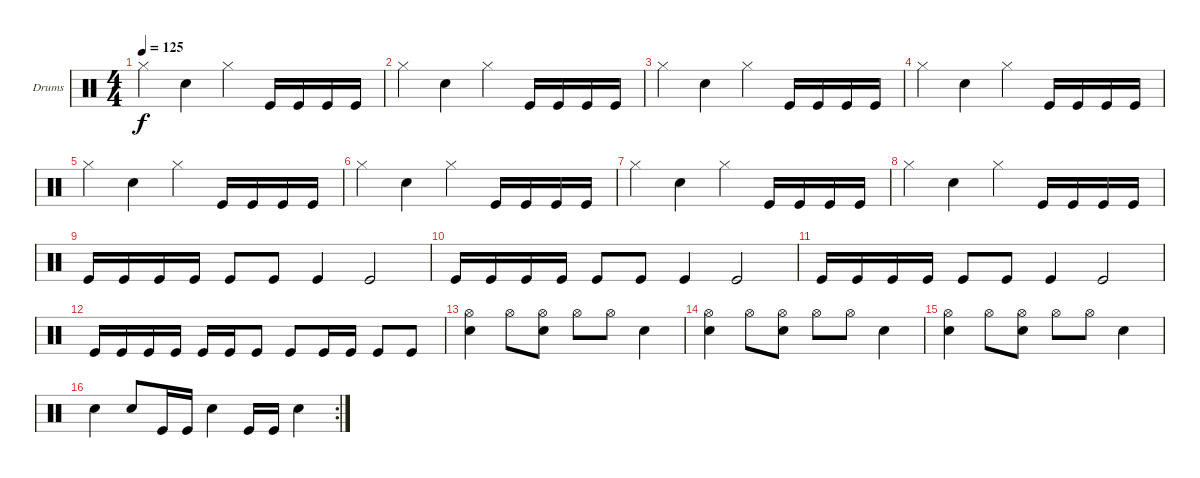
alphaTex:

\defaultSystemsLayout 4
\bracketExtendMode groupsimilarinstruments
\firstSystemTrackNameOrientation horizontal
\otherSystemsTrackNameOrientation horizontal
\track ("Барабаны1" "Drums") {instrument percussion}
\staff {score}
\articulation defaults
\ts (4 4)
\tempo 125
\clef neutral
\scale
0.333333
\ks c "Hi-Hat (closed)".4{dy f} "Snare (hit) 2".4 "Hi-Hat (closed)".4 "Kick (hit)".16 "Kick (hit)".16 "Kick (hit)".16 "Kick (hit)".16
|
\scale
0.333333 "Hi-Hat (closed)".4 "Snare (hit) 2".4 "Hi-Hat (closed)".4 "Kick (hit)".16 "Kick (hit)".16 "Kick (hit)".16 "Kick (hit)".16 |
\scale
0.333333 "Hi-Hat (closed)".4 "Snare (hit) 2".4 "Hi-Hat (closed)".4 "Kick (hit)".16 "Kick (hit)".16 "Kick (hit)".16 "Kick (hit)".16 |
\scale
0.333333 "Hi-Hat (closed)".4 "Snare (hit) 2".4 "Hi-Hat (closed)".4 "Kick (hit)".16 "Kick (hit)".16 "Kick (hit)".16 "Kick (hit)".16 |
\scale
0.333333 "Hi-Hat (closed)".4 "Snare (hit) 2".4 "Hi-Hat (closed)".4 "Kick (hit)".16 "Kick (hit)".16 "Kick (hit)".16 "Kick (hit)".16 |
\scale
0.333333 "Hi-Hat (closed)".4 "Snare (hit) 2".4 "Hi-Hat (closed)".4 "Kick (hit)".16 "Kick (hit)".16 "Kick (hit)".16 "Kick (hit)".16 |
\scale
0.333333 "Hi-Hat (closed)".4 "Snare (hit) 2".4 "Hi-Hat (closed)".4 "Kick (hit)".16 "Kick (hit)".16 "Kick (hit)".16 "Kick (hit)".16 |
\scale
0.333333 "Hi-Hat (closed)".4 "Snare (hit) 2".4 "Hi-Hat (closed)".4 "Kick (hit)".16 "Kick (hit)".16 "Kick (hit)".16 "Kick (hit)".16 |
\scale
0.333333 "Kick (hit)".16 "Kick (hit)".16 "Kick (hit)".16 "Kick (hit)".16 "Kick (hit)".8 "Kick (hit)".8 "Kick (hit)".4 "Kick (hit)".2 |
\scale
0.333333 "Kick (hit)".16 "Kick (hit)".16 "Kick (hit)".16 "Kick (hit)".16 "Kick (hit)".8 "Kick (hit)".8 "Kick (hit)".4 "Kick (hit)".2 |
\scale
0.333333 "Kick (hit)".16 "Kick (hit)".16 "Kick (hit)".16 "Kick (hit)".16 "Kick (hit)".8 "Kick (hit)".8 "Kick (hit)".4 "Kick (hit)".2 |
\scale
0.333333 "Kick (hit)".16 "Kick (hit)".16 "Kick (hit)".16 "Kick (hit)".16 "Kick (hit)".16 "Kick (hit)".16 "Kick (hit)".8 "Kick (hit)".8 "Kick (hit)".16 "Kick (hit)".16 "Kick (hit)".8 "Kick (hit)".8 |
\scale
0.333333 ("Snare (hit) 2" "Hi-Hat (open)").4 "Hi-Hat (open)".8 ("Hi-Hat (open)" "Snare (hit) 2").8 "Hi-Hat (open)".8 "Hi-Hat (open)".8 "Snare (hit) 2".4 |
\scale
0.333333 ("Snare (hit) 2" "Hi-Hat (open)").4 "Hi-Hat (open)".8 ("Hi-Hat (open)" "Snare (hit) 2").8 "Hi-Hat (open)".8 "Hi-Hat (open)".8 "Snare (hit) 2".4 |
\scale
0.322034 ("Snare (hit) 2" "Hi-Hat (open)").4 "Hi-Hat (open)".8 ("Hi-Hat (open)" "Snare (hit) 2").8 "Hi-Hat (open)".8 "Hi-Hat (open)".8 "Snare (hit) 2".4 |
\rc 2
\scale
0.355932 "Snare (hit) 2".4 "Snare (hit) 2".8 "Kick (hit)".16 "Kick (hit)".16 "Snare (hit) 2".4 "Kick (hit)".16 "Kick (hit)".16 "Snare (hit) 2".4
